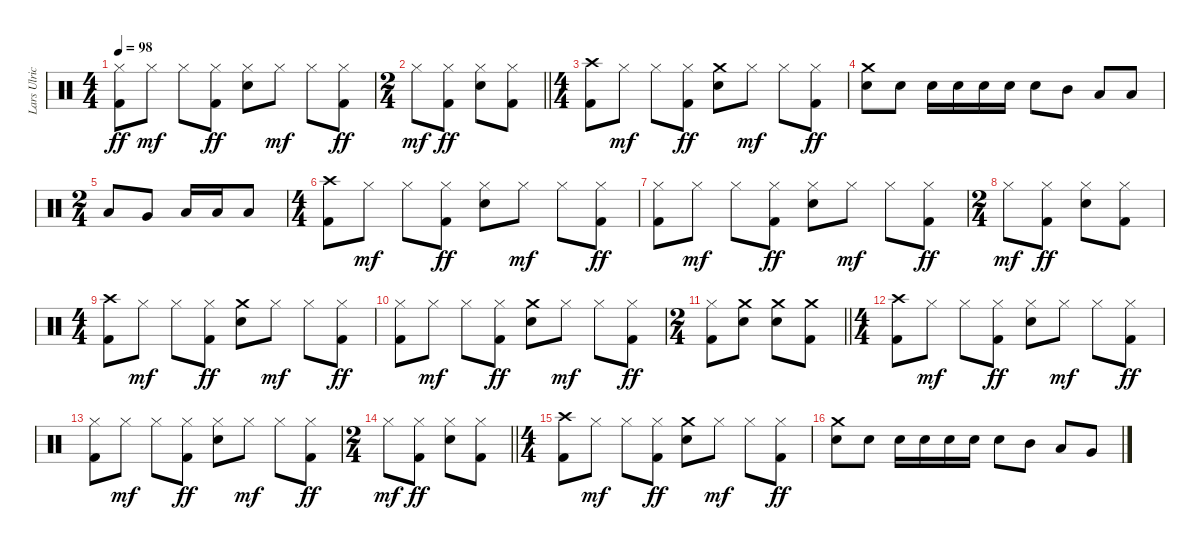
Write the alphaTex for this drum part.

\track ("Lars Ulrich" "Lars Ulric") {instrument percussion}
\staff {score}
\articulation defaults
\ts (4 4)
\tempo 98
\clef neutral
\ks c
("Hi-Hat (closed)" "Kick (hit) 2").8{dy ff} "Hi-Hat (closed)".8{dy mf} "Hi-Hat (closed)".8 ("Hi-Hat (closed)" "Kick (hit) 2").8{dy ff} ("Hi-Hat (closed)" "Snare (hit) 2").8 "Hi-Hat (closed)".8{dy mf} "Hi-Hat (closed)".8 ("Hi-Hat (closed)" "Kick (hit) 2").8{dy ff} |
\ts (2 4)
\barLineRight lightlight "Hi-Hat (closed)".8{dy mf}
("Hi-Hat (closed)" "Kick (hit) 2").8{dy ff} ("Hi-Hat (closed)" "Snare (hit) 2").8 ("Hi-Hat (closed)" "Kick (hit) 2").8 |
\ts (4 4)
("Crash high (hit)" "Kick (hit) 2").8 "Hi-Hat (closed)".8{dy mf} "Hi-Hat (closed)".8 ("Hi-Hat (closed)" "Kick (hit) 2").8{dy ff} ("Crash medium (hit)" "Snare (hit) 2").8 "Hi-Hat (closed)".8{dy mf} "Hi-Hat (closed)".8 ("Hi-Hat (closed)" "Kick (hit) 2").8{dy ff} |
("Crash medium (hit)" "Snare (hit) 2").8 "Snare (hit) 2".8 "Snare (hit) 2".16 "Snare (hit) 2".16 "Snare (hit) 2".16 "Snare (hit) 2".16 "Snare (hit) 2".8 "Mid Tom (hit)".8 "Low Tom (hit)".8 "Low Floor Tom (hit)".8 |
\ts (2 4)
"Low Tom (hit)".8 "Very Low Tom (hit)".8 "Low Floor Tom (hit)".16 "Low Floor Tom (hit)".16 "Low Floor Tom (hit)".8 |
\ts (4 4)
("Crash high (hit)" "Kick (hit) 2").8 "Hi-Hat (closed)".8{dy mf} "Hi-Hat (closed)".8 ("Hi-Hat (closed)" "Kick (hit) 2").8{dy ff} ("Hi-Hat (closed)" "Snare (hit) 2").8 "Hi-Hat (closed)".8{dy mf} "Hi-Hat (closed)".8 ("Hi-Hat (closed)" "Kick (hit) 2").8{dy ff} |
("Hi-Hat (closed)" "Kick (hit) 2").8 "Hi-Hat (closed)".8{dy mf} "Hi-Hat (closed)".8 ("Hi-Hat (closed)" "Kick (hit) 2").8{dy ff} ("Hi-Hat (closed)" "Snare (hit) 2").8 "Hi-Hat (closed)".8{dy mf} "Hi-Hat (closed)".8 ("Hi-Hat (closed)" "Kick (hit) 2").8{dy ff} |
\ts (2 4)
"Hi-Hat (closed)".8{dy mf} ("Hi-Hat (closed)" "Kick (hit) 2").8{dy ff} ("Hi-Hat (closed)" "Snare (hit) 2").8 ("Hi-Hat (closed)" "Kick (hit) 2").8 |
\ts (4 4)
("Crash high (hit)" "Kick (hit) 2").8 "Hi-Hat (closed)".8{dy mf} "Hi-Hat (closed)".8 ("Hi-Hat (closed)" "Kick (hit) 2").8{dy ff} ("Crash medium (hit)" "Snare (hit) 2").8 "Hi-Hat (closed)".8{dy mf} "Hi-Hat (closed)".8 ("Hi-Hat (closed)" "Kick (hit) 2").8{dy ff} |
("Hi-Hat (closed)" "Kick (hit) 2").8 "Hi-Hat (closed)".8{dy mf} "Hi-Hat (closed)".8 ("Hi-Hat (closed)" "Kick (hit) 2").8{dy ff} ("Crash medium (hit)" "Snare (hit) 2").8 "Hi-Hat (closed)".8{dy mf} "Hi-Hat (closed)".8 ("Hi-Hat (closed)" "Kick (hit) 2").8{dy ff} |
\ts (2 4)
\barLineRight lightlight
("Hi-Hat (closed)" "Kick (hit) 2").8 ("Crash medium (hit)" "Snare (hit) 2").8 ("Crash medium (hit)" "Snare (hit) 2").8 ("Crash medium (hit)" "Kick (hit) 2").8 |
\ts (4 4)
("Crash high (hit)" "Kick (hit) 2").8 "Hi-Hat (closed)".8{dy mf} "Hi-Hat (closed)".8 ("Hi-Hat (closed)" "Kick (hit) 2").8{dy ff} ("Hi-Hat (closed)" "Snare (hit) 2").8 "Hi-Hat (closed)".8{dy mf} "Hi-Hat (closed)".8 ("Hi-Hat (closed)" "Kick (hit) 2").8{dy ff} |
("Hi-Hat (closed)" "Kick (hit) 2").8 "Hi-Hat (closed)".8{dy mf} "Hi-Hat (closed)".8 ("Hi-Hat (closed)" "Kick (hit) 2").8{dy ff} ("Hi-Hat (closed)" "Snare (hit) 2").8 "Hi-Hat (closed)".8{dy mf} "Hi-Hat (closed)".8 ("Hi-Hat (closed)" "Kick (hit) 2").8{dy ff} |
\ts (2 4)
\barLineRight lightlight "Hi-Hat (closed)".8{dy mf}
("Hi-Hat (closed)" "Kick (hit) 2").8{dy ff} ("Hi-Hat (closed)" "Snare (hit) 2").8 ("Hi-Hat (closed)" "Kick (hit) 2").8 |
\ts (4 4)
("Crash high (hit)" "Kick (hit) 2").8 "Hi-Hat (closed)".8{dy mf} "Hi-Hat (closed)".8 ("Hi-Hat (closed)" "Kick (hit) 2").8{dy ff} ("Crash medium (hit)" "Snare (hit) 2").8 "Hi-Hat (closed)".8{dy mf} "Hi-Hat (closed)".8 ("Hi-Hat (closed)" "Kick (hit) 2").8{dy ff} |
("Crash medium (hit)" "Snare (hit) 2").8 "Snare (hit) 2".8 "Snare (hit) 2".16 "Snare (hit) 2".16 "Snare (hit) 2".16 "Snare (hit) 2".16 "Snare (hit) 2".8 "Mid Tom (hit)".8 "Low Tom (hit)".8 "Very Low Tom (hit)".8
